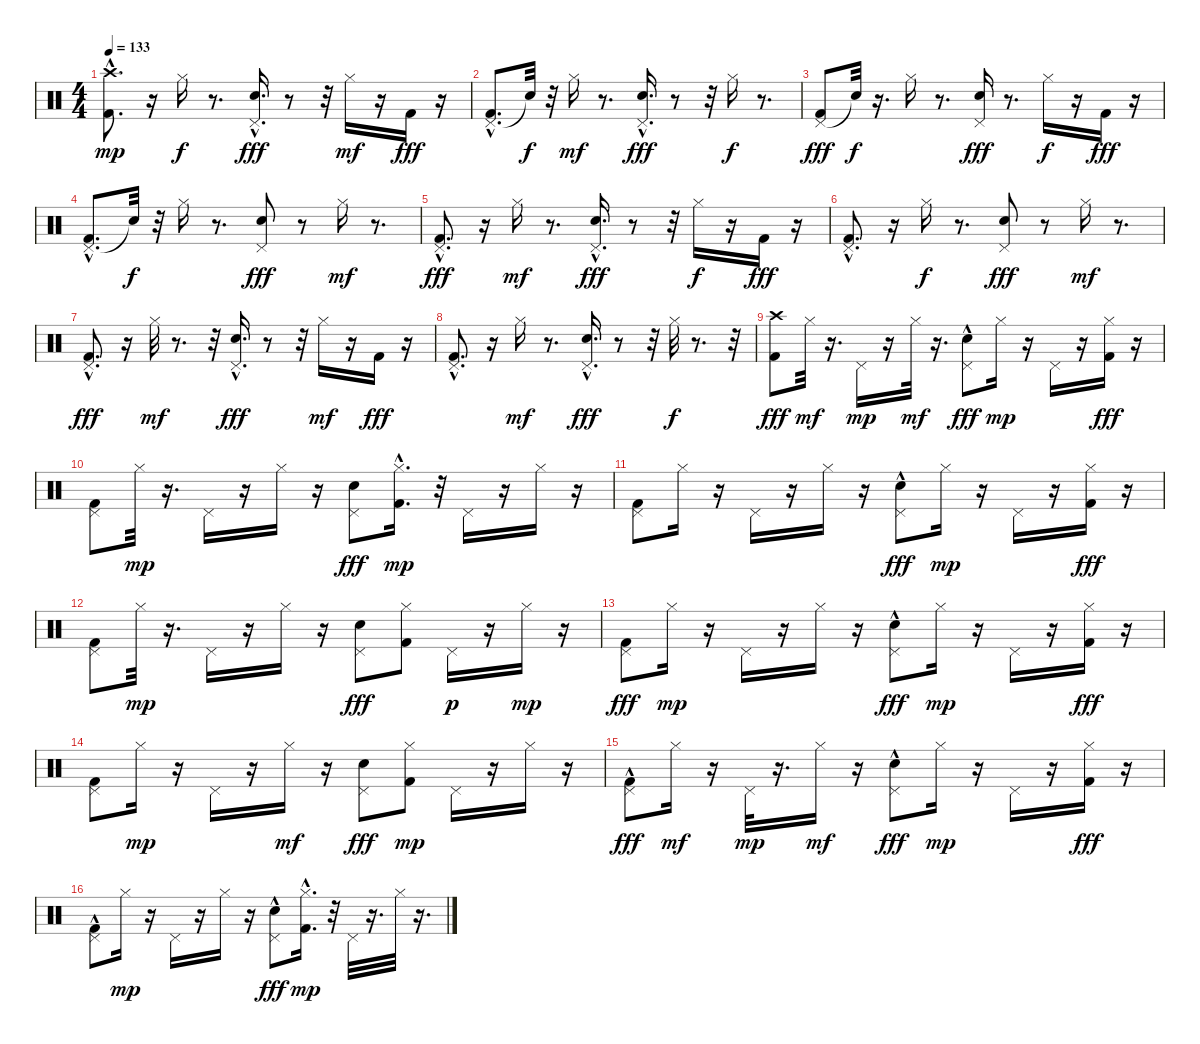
\track "" {instrument percussion}
\staff {score}
\articulation defaults
\ts (4 4)
\tempo 133
\clef neutral
\ks c
("Kick (hit) 2"{hac} "Crash high (hit)").8{d dy mp} r.16 "Hi-Hat (closed)".16{dy f} r.8{d} ("Pedal Hi-Hat (hit)" "Snare (hit) 2"{hac}).16{d dy fff} r.8 r.32 "Hi-Hat (closed)".16{dy mf} r.16 "Kick (hit) 2".16{dy fff} r.16 |
("Pedal Hi-Hat (hit)" "Kick (hit) 2"{hac}).8{d} "Snare (hit)"{t}.32{dy f} r.32 "Hi-Hat (closed)".16{dy mf} r.8{d} ("Pedal Hi-Hat (hit)" "Snare (hit) 2"{hac}).16{d dy fff} r.8 r.32 "Hi-Hat (closed)".16{dy f} r.8{d} |
("Pedal Hi-Hat (hit)" "Kick (hit) 2").8{dy fff} "Snare (hit)"{t}.32{dy f} r.16{d} "Hi-Hat (closed)".16 r.8{d} ("Pedal Hi-Hat (hit)" "Snare (hit) 2").16{dy fff} r.8{d} "Hi-Hat (closed)".16{dy f} r.16 "Kick (hit) 2".16{dy fff} r.16 |
("Pedal Hi-Hat (hit)" "Kick (hit) 2"{hac}).8{d} "Snare (hit)"{t}.32{dy f} r.32 "Hi-Hat (closed)".16 r.8{d} ("Pedal Hi-Hat (hit)" "Snare (hit) 2").8{dy fff} r.8 "Hi-Hat (closed)".16{dy mf} r.8{d} |
("Pedal Hi-Hat (hit)" "Kick (hit) 2"{hac}).8{d dy fff} r.16 "Hi-Hat (closed)".16{dy mf} r.8{d} ("Pedal Hi-Hat (hit)" "Snare (hit) 2"{hac}).16{d dy fff} r.8 r.32 "Hi-Hat (closed)".16{dy f} r.16 "Kick (hit) 2".16{dy fff} r.16 |
("Pedal Hi-Hat (hit)" "Kick (hit) 2"{hac}).8{d} r.16 "Hi-Hat (closed)".16{dy f} r.8{d} ("Pedal Hi-Hat (hit)" "Snare (hit) 2").8{dy fff} r.8 "Hi-Hat (closed)".16{dy mf} r.8{d} |
("Pedal Hi-Hat (hit)" "Kick (hit) 2"{hac}).8{d dy fff} r.16 "Hi-Hat (closed)".32{dy mf} r.8{d} r.32 ("Pedal Hi-Hat (hit)" "Snare (hit) 2"{hac}).16{d dy fff} r.8 r.32 "Hi-Hat (closed)".16{dy mf} r.16 "Kick (hit) 2".16{dy fff} r.16 |
("Pedal Hi-Hat (hit)" "Kick (hit) 2"{hac}).8{d} r.16 "Hi-Hat (closed)".16{dy mf} r.8{d} ("Pedal Hi-Hat (hit)" "Snare (hit) 2"{hac}).16{d dy fff} r.8 r.32 "Hi-Hat (closed)".32{dy f} r.8{d} r.32 |
("Crash high (hit)" "Kick (hit) 2").8{dy fff} "Hi-Hat (closed)".32{dy mf} r.16{d} "Pedal Hi-Hat (hit)".16{dy mp} r.16 "Hi-Hat (closed)".32{dy mf} r.16{d} ("Pedal Hi-Hat (hit)" "Snare (hit) 2"{hac}).8{dy fff} "Hi-Hat (closed)".16{dy mp} r.16 "Pedal Hi-Hat (hit)".16 r.16 ("Hi-Hat (closed)" "Kick (hit) 2").16{dy fff} r.16 |
("Pedal Hi-Hat (hit)" "Kick (hit) 2").8 "Hi-Hat (closed)".32{dy mp} r.16{d} "Pedal Hi-Hat (hit)".16 r.16 "Hi-Hat (closed)".16 r.16 ("Pedal Hi-Hat (hit)" "Snare (hit) 2").8{dy fff} ("Kick (hit) 2"{hac} "Hi-Hat (closed)").16{d dy mp} r.32 "Pedal Hi-Hat (hit)".16 r.16 "Hi-Hat (closed)".16 r.16 |
("Kick (hit) 2" "Pedal Hi-Hat (hit)").8 "Hi-Hat (closed)".16 r.16 "Pedal Hi-Hat (hit)".16 r.16 "Hi-Hat (closed)".16 r.16 ("Pedal Hi-Hat (hit)" "Snare (hit) 2"{hac}).8{dy fff} "Hi-Hat (closed)".16{dy mp} r.16 "Pedal Hi-Hat (hit)".16 r.16 ("Hi-Hat (closed)" "Kick (hit) 2").16{dy fff} r.16 |
("Pedal Hi-Hat (hit)" "Kick (hit) 2").8 "Hi-Hat (closed)".32{dy mp} r.16{d} "Pedal Hi-Hat (hit)".16 r.16 "Hi-Hat (closed)".16 r.16 ("Pedal Hi-Hat (hit)" "Snare (hit) 2").8{dy fff} ("Hi-Hat (closed)" "Kick (hit) 2").8 "Pedal Hi-Hat (hit)".16{dy p} r.16 "Hi-Hat (closed)".16{dy mp} r.16 |
("Pedal Hi-Hat (hit)" "Kick (hit) 2").8{dy fff} "Hi-Hat (closed)".16{dy mp} r.16 "Pedal Hi-Hat (hit)".16 r.16 "Hi-Hat (closed)".16 r.16 ("Pedal Hi-Hat (hit)" "Snare (hit) 2"{hac}).8{dy fff} "Hi-Hat (closed)".16{dy mp} r.16 "Pedal Hi-Hat (hit)".16 r.16 ("Hi-Hat (closed)" "Kick (hit) 2").16{dy fff} r.16 |
("Pedal Hi-Hat (hit)" "Kick (hit) 2").8 "Hi-Hat (closed)".16{dy mp} r.16 "Pedal Hi-Hat (hit)".16 r.16 "Hi-Hat (closed)".16{dy mf} r.16 ("Pedal Hi-Hat (hit)" "Snare (hit) 2").8{dy fff} ("Kick (hit) 2" "Hi-Hat (closed)").8{dy mp} "Pedal Hi-Hat (hit)".16 r.16 "Hi-Hat (closed)".16 r.16 |
("Pedal Hi-Hat (hit)" "Kick (hit) 2"{hac}).8{dy fff} "Hi-Hat (closed)".16{dy mf} r.16 "Pedal Hi-Hat (hit)".32{dy mp} r.16{d} "Hi-Hat (closed)".16{dy mf} r.16 ("Pedal Hi-Hat (hit)" "Snare (hit) 2"{hac}).8{dy fff} "Hi-Hat (closed)".16{dy mp} r.16 "Pedal Hi-Hat (hit)".16 r.16 ("Hi-Hat (closed)" "Kick (hit) 2").16{dy fff} r.16 |
("Pedal Hi-Hat (hit)" "Kick (hit) 2"{hac}).8 "Hi-Hat (closed)".16{dy mp} r.16 "Pedal Hi-Hat (hit)".16 r.16 "Hi-Hat (closed)".16 r.16 ("Pedal Hi-Hat (hit)" "Snare (hit) 2"{hac}).8{dy fff} ("Kick (hit) 2"{hac} "Hi-Hat (closed)").16{d dy mp} r.32 "Pedal Hi-Hat (hit)".32 r.16{d} "Hi-Hat (closed)".32 r.16{d}
